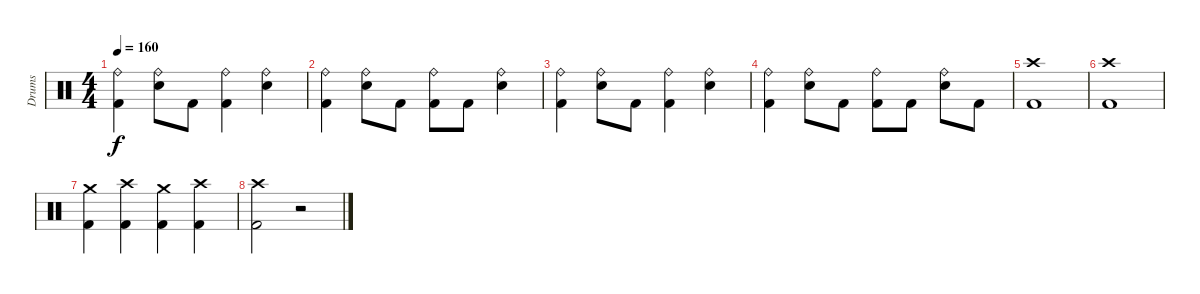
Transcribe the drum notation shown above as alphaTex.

\track ("Drums" "Drums") {instrument percussion}
\staff {score}
\articulation defaults
\ts (4 4)
\tempo 160
\clef neutral
\ks c
("Ride (bell)" "Kick (hit) 2").4{dy f} ("Ride (bell)" "Electric Snare (hit)").8 "Kick (hit) 2".8 ("Ride (bell)" "Kick (hit) 2").4 ("Ride (bell)" "Electric Snare (hit)").4 |
("Ride (bell)" "Kick (hit) 2").4 ("Ride (bell)" "Electric Snare (hit)").8 "Kick (hit) 2".8 ("Ride (bell)" "Kick (hit) 2").8 "Kick (hit) 2".8 ("Ride (bell)" "Electric Snare (hit)").4 |
("Ride (bell)" "Kick (hit) 2").4 ("Ride (bell)" "Electric Snare (hit)").8 "Kick (hit) 2".8 ("Ride (bell)" "Kick (hit) 2").4 ("Ride (bell)" "Electric Snare (hit)").4 |
("Ride (bell)" "Kick (hit) 2").4 ("Ride (bell)" "Electric Snare (hit)").8 "Kick (hit) 2".8 ("Ride (bell)" "Kick (hit) 2").8 "Kick (hit) 2".8 ("Ride (bell)" "Electric Snare (hit)").8 "Kick (hit) 2".8 |
("Crash high (hit)" "Kick (hit) 2").1 |
("Crash high (hit)" "Kick (hit) 2").1 |
("Crash medium (hit)" "Kick (hit) 2").4 ("Crash high (hit)" "Kick (hit) 2").4 ("Crash medium (hit)" "Kick (hit) 2").4 ("Crash high (hit)" "Kick (hit) 2").4 |
("Crash high (hit)" "Kick (hit) 2").2 r.2
